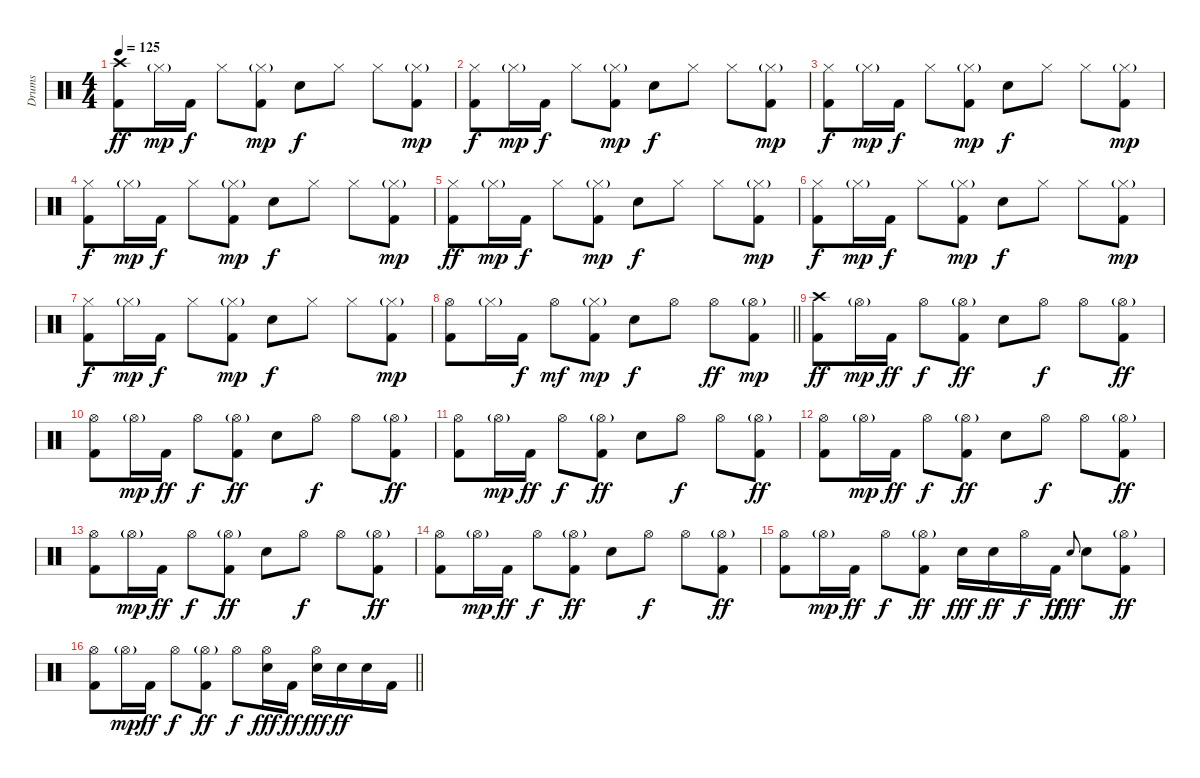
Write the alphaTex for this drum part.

\track ("Drums" "Drums") {instrument percussion}
\staff {score}
\articulation defaults
\ts (4 4)
\tempo 125
\clef neutral
\ks c
("Crash high (hit)" "Kick (hit) 2").8{dy ff} "Hi-Hat (closed)"{g}.16{dy mp} "Kick (hit) 2".16{dy f} "Hi-Hat (closed)".8 ("Hi-Hat (closed)"{g} "Kick (hit) 2").8{dy mp} "Snare (hit) 2".8{dy f} "Hi-Hat (closed)".8 "Hi-Hat (closed)".8 ("Hi-Hat (closed)"{g} "Kick (hit) 2").8{dy mp} |
("Hi-Hat (closed)" "Kick (hit) 2").8{dy f} "Hi-Hat (closed)"{g}.16{dy mp} "Kick (hit) 2".16{dy f} "Hi-Hat (closed)".8 ("Hi-Hat (closed)"{g} "Kick (hit) 2").8{dy mp} "Snare (hit) 2".8{dy f} "Hi-Hat (closed)".8 "Hi-Hat (closed)".8 ("Hi-Hat (closed)"{g} "Kick (hit) 2").8{dy mp} |
("Hi-Hat (closed)" "Kick (hit) 2").8{dy f} "Hi-Hat (closed)"{g}.16{dy mp} "Kick (hit) 2".16{dy f} "Hi-Hat (closed)".8 ("Hi-Hat (closed)"{g} "Kick (hit) 2").8{dy mp} "Snare (hit) 2".8{dy f} "Hi-Hat (closed)".8 "Hi-Hat (closed)".8 ("Hi-Hat (closed)"{g} "Kick (hit) 2").8{dy mp} |
("Hi-Hat (closed)" "Kick (hit) 2").8{dy f} "Hi-Hat (closed)"{g}.16{dy mp} "Kick (hit) 2".16{dy f} "Hi-Hat (closed)".8 ("Hi-Hat (closed)"{g} "Kick (hit) 2").8{dy mp} "Snare (hit) 2".8{dy f} "Hi-Hat (closed)".8 "Hi-Hat (closed)".8 ("Hi-Hat (closed)"{g} "Kick (hit) 2").8{dy mp} |
("Hi-Hat (closed)" "Kick (hit) 2").8{dy ff} "Hi-Hat (closed)"{g}.16{dy mp} "Kick (hit) 2".16{dy f} "Hi-Hat (closed)".8 ("Hi-Hat (closed)"{g} "Kick (hit) 2").8{dy mp} "Snare (hit) 2".8{dy f} "Hi-Hat (closed)".8 "Hi-Hat (closed)".8 ("Hi-Hat (closed)"{g} "Kick (hit) 2").8{dy mp} |
("Hi-Hat (closed)" "Kick (hit) 2").8{dy f} "Hi-Hat (closed)"{g}.16{dy mp} "Kick (hit) 2".16{dy f} "Hi-Hat (closed)".8 ("Hi-Hat (closed)"{g} "Kick (hit) 2").8{dy mp} "Snare (hit) 2".8{dy f} "Hi-Hat (closed)".8 "Hi-Hat (closed)".8 ("Hi-Hat (closed)"{g} "Kick (hit) 2").8{dy mp} |
("Hi-Hat (closed)" "Kick (hit) 2").8{dy f} "Hi-Hat (closed)"{g}.16{dy mp} "Kick (hit) 2".16{dy f} "Hi-Hat (closed)".8 ("Hi-Hat (closed)"{g} "Kick (hit) 2").8{dy mp} "Snare (hit) 2".8{dy f} "Hi-Hat (closed)".8 "Hi-Hat (closed)".8 ("Hi-Hat (closed)"{g} "Kick (hit) 2").8{dy mp} |
\barLineRight lightlight
("Hi-Hat (open)" "Kick (hit) 2").8 "Hi-Hat (closed)"{g}.16 "Kick (hit) 2".16{dy f} "Hi-Hat (open)".8{dy mf} ("Hi-Hat (closed)"{g} "Kick (hit) 2").8{dy mp} "Snare (hit) 2".8{dy f} "Hi-Hat (open)".8 "Hi-Hat (open)".8{dy ff} ("Hi-Hat (open)"{g} "Kick (hit) 2").8{dy mp} |
("Crash high (hit)" "Kick (hit) 2").8{dy ff} "Hi-Hat (open)"{g}.16{dy mp} "Kick (hit) 2".16{dy ff} "Hi-Hat (open)".8{dy f} ("Hi-Hat (open)"{g} "Kick (hit) 2").8{dy ff} "Snare (hit) 2".8 "Hi-Hat (open)".8{dy f} "Hi-Hat (open)".8 ("Hi-Hat (open)"{g} "Kick (hit) 2").8{dy ff} |
("Hi-Hat (open)" "Kick (hit) 2").8 "Hi-Hat (open)"{g}.16{dy mp} "Kick (hit) 2".16{dy ff} "Hi-Hat (open)".8{dy f} ("Hi-Hat (open)"{g} "Kick (hit) 2").8{dy ff} "Snare (hit) 2".8 "Hi-Hat (open)".8{dy f} "Hi-Hat (open)".8 ("Hi-Hat (open)"{g} "Kick (hit) 2").8{dy ff} |
("Hi-Hat (open)" "Kick (hit) 2").8 "Hi-Hat (open)"{g}.16{dy mp} "Kick (hit) 2".16{dy ff} "Hi-Hat (open)".8{dy f} ("Hi-Hat (open)"{g} "Kick (hit) 2").8{dy ff} "Snare (hit) 2".8 "Hi-Hat (open)".8{dy f} "Hi-Hat (open)".8 ("Hi-Hat (open)"{g} "Kick (hit) 2").8{dy ff} |
("Hi-Hat (open)" "Kick (hit) 2").8 "Hi-Hat (open)"{g}.16{dy mp} "Kick (hit) 2".16{dy ff} "Hi-Hat (open)".8{dy f} ("Hi-Hat (open)"{g} "Kick (hit) 2").8{dy ff} "Snare (hit) 2".8 "Hi-Hat (open)".8{dy f} "Hi-Hat (open)".8 ("Hi-Hat (open)"{g} "Kick (hit) 2").8{dy ff} |
("Hi-Hat (open)" "Kick (hit) 2").8 "Hi-Hat (open)"{g}.16{dy mp} "Kick (hit) 2".16{dy ff} "Hi-Hat (open)".8{dy f} ("Hi-Hat (open)"{g} "Kick (hit) 2").8{dy ff} "Snare (hit) 2".8 "Hi-Hat (open)".8{dy f} "Hi-Hat (open)".8 ("Hi-Hat (open)"{g} "Kick (hit) 2").8{dy ff} |
("Hi-Hat (open)" "Kick (hit) 2").8 "Hi-Hat (open)"{g}.16{dy mp} "Kick (hit) 2".16{dy ff} "Hi-Hat (open)".8{dy f} ("Hi-Hat (open)"{g} "Kick (hit) 2").8{dy ff} "Snare (hit) 2".8 "Hi-Hat (open)".8{dy f} "Hi-Hat (open)".8 ("Hi-Hat (open)"{g} "Kick (hit) 2").8{dy ff} |
("Hi-Hat (open)" "Kick (hit) 2").8 "Hi-Hat (open)"{g}.16{dy mp} "Kick (hit) 2".16{dy ff} "Hi-Hat (open)".8{dy f} ("Hi-Hat (open)"{g} "Kick (hit) 2").8{dy ff} "Snare (hit) 2".16{dy fff} "Snare (hit) 2".16{dy ff} "Hi-Hat (open)".16{dy f} "Kick (hit) 2".16{dy ff} "Snare (hit) 2".8{gr onbeat dy fff} "Snare (hit) 2".8 ("Hi-Hat (open)"{g} "Kick (hit) 2").8{dy ff} |
\barLineRight lightlight
("Hi-Hat (open)" "Kick (hit) 2").8 "Hi-Hat (open)"{g}.16{dy mp} "Kick (hit) 2".16{dy ff} "Hi-Hat (open)".8{dy f} ("Hi-Hat (open)"{g} "Kick (hit) 2").8{dy ff} "Hi-Hat (open)".8{dy f} ("Hi-Hat (open)" "Snare (hit) 2").16{dy fff} "Kick (hit) 2".16{dy ff} ("Hi-Hat (open)" "Snare (hit) 2").16{dy fff} "Snare (hit) 2".16{dy ff} "Snare (hit) 2".16 "Kick (hit) 2".16
